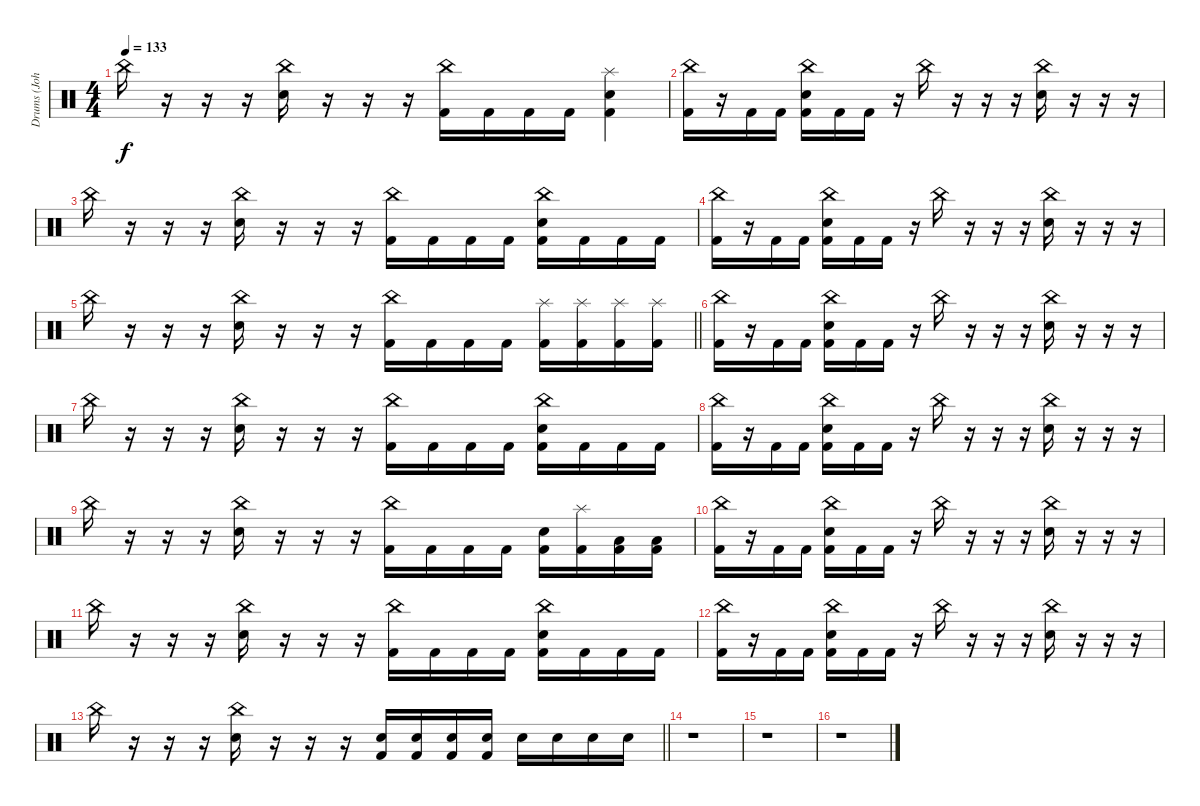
\track ("Drums (John)" "Drums (Joh") {instrument percussion}
\staff {score}
\articulation defaults
\ts (4 4)
\tempo 133
\clef neutral
\ks c "China (hit)".16{dy f}
r.16 r.16 r.16 ("China (hit)" "Electric Snare (hit)").16 r.16 r.16 r.16 ("China (hit)" "Kick (hit) 2").16 "Kick (hit) 2".16 "Kick (hit) 2".16 "Kick (hit) 2".16 ("Splash (hit)" "Electric Snare (hit)" "Kick (hit) 2").4 |
("China (hit)" "Kick (hit) 2").16 r.16 "Kick (hit) 2".16 "Kick (hit) 2".16 ("China (hit)" "Electric Snare (hit)" "Kick (hit) 2").16 "Kick (hit) 2".16 "Kick (hit) 2".16 r.16 "China (hit)".16 r.16 r.16 r.16 ("China (hit)" "Electric Snare (hit)").16 r.16 r.16 r.16 |
"China (hit)".16 r.16 r.16 r.16 ("China (hit)" "Electric Snare (hit)").16 r.16 r.16 r.16 ("China (hit)" "Kick (hit) 2").16 "Kick (hit) 2".16 "Kick (hit) 2".16 "Kick (hit) 2".16 ("China (hit)" "Electric Snare (hit)" "Kick (hit) 2").16 "Kick (hit) 2".16 "Kick (hit) 2".16 "Kick (hit) 2".16 |
("China (hit)" "Kick (hit) 2").16 r.16 "Kick (hit) 2".16 "Kick (hit) 2".16 ("China (hit)" "Electric Snare (hit)" "Kick (hit) 2").16 "Kick (hit) 2".16 "Kick (hit) 2".16 r.16 "China (hit)".16 r.16 r.16 r.16 ("China (hit)" "Electric Snare (hit)").16 r.16 r.16 r.16 |
\barLineRight lightlight "China (hit)".16
r.16 r.16 r.16 ("China (hit)" "Electric Snare (hit)").16 r.16 r.16 r.16 ("China (hit)" "Kick (hit) 2").16 "Kick (hit) 2".16 "Kick (hit) 2".16 "Kick (hit) 2".16 ("Splash (hit)" "Kick (hit) 2").16 ("Splash (hit)" "Kick (hit) 2").16 ("Splash (hit)" "Kick (hit) 2").16 ("Splash (hit)" "Kick (hit) 2").16 |
("China (hit)" "Kick (hit) 2").16 r.16 "Kick (hit) 2".16 "Kick (hit) 2".16 ("China (hit)" "Electric Snare (hit)" "Kick (hit) 2").16 "Kick (hit) 2".16 "Kick (hit) 2".16 r.16 "China (hit)".16 r.16 r.16 r.16 ("China (hit)" "Electric Snare (hit)").16 r.16 r.16 r.16 |
"China (hit)".16 r.16 r.16 r.16 ("China (hit)" "Electric Snare (hit)").16 r.16 r.16 r.16 ("China (hit)" "Kick (hit) 2").16 "Kick (hit) 2".16 "Kick (hit) 2".16 "Kick (hit) 2".16 ("China (hit)" "Electric Snare (hit)" "Kick (hit) 2").16 "Kick (hit) 2".16 "Kick (hit) 2".16 "Kick (hit) 2".16 |
("China (hit)" "Kick (hit) 2").16 r.16 "Kick (hit) 2".16 "Kick (hit) 2".16 ("China (hit)" "Electric Snare (hit)" "Kick (hit) 2").16 "Kick (hit) 2".16 "Kick (hit) 2".16 r.16 "China (hit)".16 r.16 r.16 r.16 ("China (hit)" "Electric Snare (hit)").16 r.16 r.16 r.16 |
"China (hit)".16 r.16 r.16 r.16 ("China (hit)" "Electric Snare (hit)").16 r.16 r.16 r.16 ("China (hit)" "Kick (hit) 2").16 "Kick (hit) 2".16 "Kick (hit) 2".16 "Kick (hit) 2".16 ("Electric Snare (hit)" "Kick (hit) 2").16 ("Splash (hit)" "Kick (hit) 2").16 ("Low Tom (hit)" "Kick (hit) 2").16 ("Low Tom (hit)" "Kick (hit) 2").16 |
("China (hit)" "Kick (hit) 2").16 r.16 "Kick (hit) 2".16 "Kick (hit) 2".16 ("China (hit)" "Electric Snare (hit)" "Kick (hit) 2").16 "Kick (hit) 2".16 "Kick (hit) 2".16 r.16 "China (hit)".16 r.16 r.16 r.16 ("China (hit)" "Electric Snare (hit)").16 r.16 r.16 r.16 |
"China (hit)".16 r.16 r.16 r.16 ("China (hit)" "Electric Snare (hit)").16 r.16 r.16 r.16 ("China (hit)" "Kick (hit) 2").16 "Kick (hit) 2".16 "Kick (hit) 2".16 "Kick (hit) 2".16 ("China (hit)" "Electric Snare (hit)" "Kick (hit) 2").16 "Kick (hit) 2".16 "Kick (hit) 2".16 "Kick (hit) 2".16 |
("China (hit)" "Kick (hit) 2").16 r.16 "Kick (hit) 2".16 "Kick (hit) 2".16 ("China (hit)" "Electric Snare (hit)" "Kick (hit) 2").16 "Kick (hit) 2".16 "Kick (hit) 2".16 r.16 "China (hit)".16 r.16 r.16 r.16 ("China (hit)" "Electric Snare (hit)").16 r.16 r.16 r.16 |
\barLineRight lightlight "China (hit)".16
r.16 r.16 r.16 ("China (hit)" "Electric Snare (hit)").16 r.16 r.16 r.16 ("Electric Snare (hit)" "Kick (hit) 2").16 ("Electric Snare (hit)" "Kick (hit) 2").16 ("Electric Snare (hit)" "Kick (hit) 2").16 ("Electric Snare (hit)" "Kick (hit) 2").16 "Electric Snare (hit)".16 "Electric Snare (hit)".16 "Electric Snare (hit)".16 "Electric Snare (hit)".16 |
r.1 |
r.1 |
r.1
